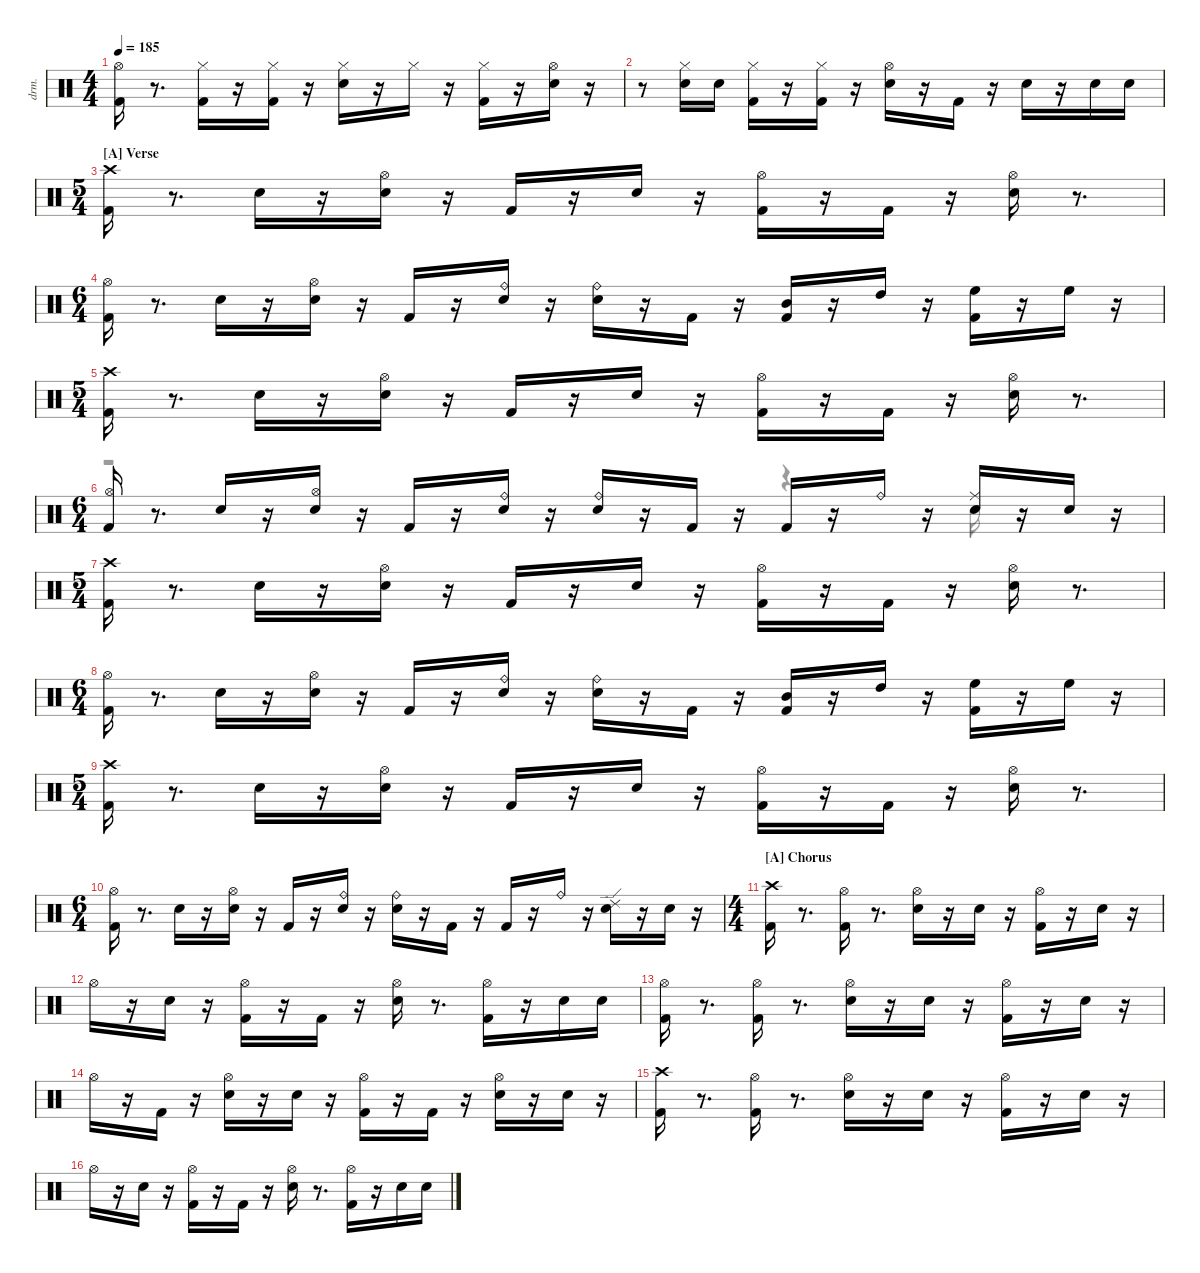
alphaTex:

\defaultSystemsLayout 4
\hideDynamics
\bracketExtendMode nobrackets
\otherSystemsTrackNameOrientation horizontal
\track ("drums" "drm.") {instrument percussion}
\staff {score}
\articulation defaults
\voice
\ts (4 4)
\tempo 185
\clef neutral
\ks aminor
("Kick (hit) 2" "Hi-Hat (open)"{acc #}).16{dy ff beam Down} r.8{d beam Down} ("Kick (hit) 2" "Hi-Hat (closed)"{acc #}).16{dy f beam Down} r.16{beam Down} ("Kick (hit) 2" "Hi-Hat (closed)"{acc #}).16{dy ff beam Down} r.16{beam Down} ("Snare (hit) 2" "Hi-Hat (closed)"{acc #}).16{beam Down} r.16{beam Down} "Hi-Hat (closed)"{acc #}.16{dy ppp beam Down} r.16{beam Down} ("Kick (hit) 2" "Hi-Hat (closed)"{acc #}).16{dy ff beam Down} r.16{beam Down} ("Snare (hit) 2" "Hi-Hat (open)"{acc #}).16{beam Down} r.16{beam Down} |
r.8{beam Down} ("Snare (hit) 2" "Hi-Hat (closed)"{acc #}).16{beam Down} "Snare (hit) 2".16{dy pp beam Down} ("Kick (hit) 2" "Hi-Hat (closed)"{acc #}).16{dy f beam Down} r.16{beam Down} ("Kick (hit) 2" "Hi-Hat (closed)"{acc #}).16{dy fff beam Down} r.16{beam Down} ("Snare (hit) 2" "Hi-Hat (open)"{acc #}).16{dy ff beam Down} r.16{beam Down} "Kick (hit) 2".16{beam Up} r.16{beam Up} "Snare (hit) 2".16{dy fff beam Down} r.16{beam Down} "Snare (hit) 2".16{dy p beam Down} "Snare (hit) 2".16{dy pp beam Down} |
\ts (5 4)
\section ("A" "Verse")
("Kick (hit) 2" "Crash high (hit)"{acc #}).16{dy fff beam Down} r.8{d beam Down} "Snare (hit) 2".16{dy f beam Down} r.16{beam Down} ("Snare (hit) 2" "Hi-Hat (open)"{acc #}).16{dy pp beam Down} r.16{beam Down} "Kick (hit) 2".16{dy f beam Up} r.16{beam Up} "Snare (hit) 2".16{dy ff beam Down} r.16{beam Down} ("Kick (hit) 2" "Hi-Hat (open)"{acc #}).16{dy mp beam Down} r.16{beam Down} "Kick (hit) 2".16{dy ff beam Up} r.16{beam Up} ("Snare (hit) 2" "Hi-Hat (open)"{acc #}).16{beam Down} r.8{d beam Down} |
\ts (6 4)
("Kick (hit) 2" "Hi-Hat (open)"{acc #}).16{beam Down} r.8{d beam Down} "Snare (hit) 2".16{beam Down} r.16{beam Down} ("Snare (hit) 2" "Hi-Hat (open)"{acc #}).16{dy pp beam Down} r.16{beam Down} "Kick (hit) 2".16{dy ff beam Up} r.16{beam Up} ("Snare (hit) 2" "Ride (bell)").16{dy f beam Down} r.16{beam Down} ("Snare (hit) 2" "Ride (bell)").16{dy pp beam Down} r.16{beam Down} "Kick (hit) 2".16{dy f beam Up} r.16{beam Up} ("Kick (hit) 2" "Mid Tom (hit)").16{dy fff beam Up} r.16{beam Up} "High Tom (hit)".16{dy ff beam Down} r.16{beam Down} ("Kick (hit) 2" "High Floor Tom (hit)").16{beam Down} r.16{beam Down} "High Floor Tom (hit)".16{beam Down} r.16{beam Down} |
\ts (5 4)
("Kick (hit) 2" "Crash high (hit)"{acc #}).16{beam Down} r.8{d beam Down} "Snare (hit) 2".16{dy f beam Down} r.16{beam Down} ("Snare (hit) 2" "Hi-Hat (open)"{acc #}).16{dy mp beam Down} r.16{beam Down} "Kick (hit) 2".16{dy f beam Up} r.16{beam Up} "Snare (hit) 2".16{dy ff beam Down} r.16{beam Down} ("Kick (hit) 2" "Hi-Hat (open)"{acc #}).16{dy mf beam Down} r.16{beam Down} "Kick (hit) 2".16{dy ff beam Up} r.16{beam Up} ("Snare (hit) 2" "Hi-Hat (open)"{acc #}).16{beam Down} r.8{d beam Down} |
\ts (6 4)
("Kick (hit) 2" "Hi-Hat (open)"{acc #}).16{beam Up} r.8{d beam Up} "Snare (hit) 2".16{beam Up} r.16{beam Up} ("Snare (hit) 2" "Hi-Hat (open)"{acc #}).16{dy mf beam Up} r.16{beam Up} "Kick (hit) 2".16{dy ff beam Up} r.16{beam Up} ("Snare (hit) 2" "Ride (bell)").16{dy f beam Up} r.16{beam Up} ("Snare (hit) 2" "Ride (bell)").16{dy pp beam Up} r.16{beam Up} "Kick (hit) 2".16{dy f beam Up} r.16{beam Up} "Kick (hit) 2".16{dy fff beam Up} r.16{beam Up} "Ride (bell)".16{dy ff beam Up} r.16{beam Up} ("Snare (hit) 2" "Ride (middle)"{acc #}).16{dy f beam Up} r.16{beam Up} "Snare (hit) 2".16{dy ppp beam Up} r.16{beam Up} |
\ts (5 4)
("Kick (hit) 2" "Crash high (hit)"{acc #}).16{dy ff beam Down} r.8{d beam Down} "Snare (hit) 2".16{dy f beam Down} r.16{beam Down} ("Snare (hit) 2" "Hi-Hat (open)"{acc #}).16{dy ff beam Down} r.16{beam Down} "Kick (hit) 2".16{dy f beam Up} r.16{beam Up} "Snare (hit) 2".16{dy ff beam Down} r.16{beam Down} ("Kick (hit) 2" "Hi-Hat (open)"{acc #}).16{dy mf beam Down} r.16{beam Down} "Kick (hit) 2".16{dy ff beam Up} r.16{beam Up} ("Snare (hit) 2" "Hi-Hat (open)"{acc #}).16{dy fff beam Down} r.8{d beam Down} |
\ts (6 4)
("Kick (hit) 2" "Hi-Hat (open)"{acc #}).16{beam Down} r.8{d beam Down} "Snare (hit) 2".16{dy ff beam Down} r.16{beam Down} ("Snare (hit) 2" "Hi-Hat (open)"{acc #}).16{dy pp beam Down} r.16{beam Down} "Kick (hit) 2".16{dy ff beam Up} r.16{beam Up} ("Snare (hit) 2" "Ride (bell)").16{dy f beam Down} r.16{beam Down} ("Snare (hit) 2" "Ride (bell)").16{dy pp beam Down} r.16{beam Down} "Kick (hit) 2".16{dy f beam Up} r.16{beam Up} ("Kick (hit) 2" "Mid Tom (hit)").16{dy fff beam Up} r.16{beam Up} "High Tom (hit)".16{dy ff beam Down} r.16{beam Down} ("Kick (hit) 2" "High Floor Tom (hit)").16{beam Down} r.16{beam Down} "High Floor Tom (hit)".16{beam Down} r.16{beam Down} |
\ts (5 4)
("Kick (hit) 2" "Crash high (hit)"{acc #}).16{beam Down} r.8{d beam Down} "Snare (hit) 2".16{dy f beam Down} r.16{beam Down} ("Snare (hit) 2" "Hi-Hat (open)"{acc #}).16{dy pp beam Down} r.16{beam Down} "Kick (hit) 2".16{dy f beam Up} r.16{beam Up} "Snare (hit) 2".16{dy ff beam Down} r.16{beam Down} ("Kick (hit) 2" "Hi-Hat (open)"{acc #}).16{dy mf beam Down} r.16{beam Down} "Kick (hit) 2".16{dy ff beam Up} r.16{beam Up} ("Snare (hit) 2" "Hi-Hat (open)"{acc #}).16{beam Down} r.8{d beam Down} |
\ts (6 4)
("Kick (hit) 2" "Hi-Hat (open)"{acc #}).16{beam Down} r.8{d beam Down} "Snare (hit) 2".16{beam Down} r.16{beam Down} ("Snare (hit) 2" "Hi-Hat (open)"{acc #}).16{dy f beam Down} r.16{beam Down} "Kick (hit) 2".16{dy ff beam Up} r.16{beam Up} ("Snare (hit) 2" "Ride (bell)").16{dy f beam Down} r.16{beam Down} ("Snare (hit) 2" "Ride (bell)").16{dy pp beam Down} r.16{beam Down} "Kick (hit) 2".16{dy f beam Up} r.16{beam Up} "Kick (hit) 2".16{dy fff beam Up} r.16{beam Up} "Ride (bell)".16{dy ff beam Down} r.16{beam Down} ("Snare (hit) 2" "Ride (edge) 2").16{dy fff beam Down} r.16{beam Down} "Snare (hit) 2".16{dy mp beam Down} r.16{beam Down} |
\ts (4 4)
\section ("A" "Chorus")
("Kick (hit) 2" "Crash high (hit)"{acc #}).16{dy fff beam Down} r.8{d beam Down} ("Kick (hit) 2" "Hi-Hat (open)"{acc #}).16{dy ff beam Down} r.8{d beam Down} ("Snare (hit) 2" "Hi-Hat (open)"{acc #}).16{beam Down} r.16{beam Down} "Snare (hit) 2".16{dy p beam Down} r.16{beam Down} ("Kick (hit) 2" "Hi-Hat (open)"{acc #}).16{dy ff beam Down} r.16{beam Down} "Snare (hit) 2".16{beam Down} r.16{beam Down} |
"Hi-Hat (open)"{acc #}.16{dy f beam Down} r.16{beam Down} "Snare (hit) 2".16{dy ff beam Down} r.16{beam Down} ("Kick (hit) 2" "Hi-Hat (open)"{acc #}).16{dy f beam Down} r.16{beam Down} "Kick (hit) 2".16{dy ff beam Up} r.16{beam Up} ("Snare (hit) 2" "Hi-Hat (open)"{acc #}).16{dy f beam Down} r.8{d beam Down} ("Kick (hit) 2" "Hi-Hat (open)"{acc #}).16{dy mf beam Down} r.16{beam Down} "Snare (hit) 2".16{beam Down} "Snare (hit) 2".16{dy pp beam Down} |
("Kick (hit) 2" "Hi-Hat (open)"{acc #}).16{dy ff beam Down} r.8{d beam Down} ("Kick (hit) 2" "Hi-Hat (open)"{acc #}).16{beam Down} r.8{d beam Down} ("Snare (hit) 2" "Hi-Hat (open)"{acc #}).16{beam Down} r.16{beam Down} "Snare (hit) 2".16{dy p beam Down} r.16{beam Down} ("Kick (hit) 2" "Hi-Hat (open)"{acc #}).16{dy ff beam Down} r.16{beam Down} "Snare (hit) 2".16{dy f beam Down} r.16{beam Down} |
"Hi-Hat (open)"{acc #}.16{dy ff beam Down} r.16{beam Down} "Kick (hit) 2".16{beam Up} r.16{beam Up} ("Snare (hit) 2" "Hi-Hat (open)"{acc #}).16{beam Down} r.16{beam Down} "Snare (hit) 2".16{dy p beam Down} r.16{beam Down} ("Kick (hit) 2" "Hi-Hat (open)"{acc #}).16{dy mf beam Down} r.16{beam Down} "Kick (hit) 2".16{dy ff beam Up} r.16{beam Up} ("Snare (hit) 2" "Hi-Hat (open)"{acc #}).16{beam Down} r.16{beam Down} "Snare (hit) 2".16{beam Down} r.16{beam Down} |
("Kick (hit) 2" "Crash high (hit)"{acc #}).16{beam Down} r.8{d beam Down} ("Kick (hit) 2" "Hi-Hat (open)"{acc #}).16{beam Down} r.8{d beam Down} ("Snare (hit) 2" "Hi-Hat (open)"{acc #}).16{beam Down} r.16{beam Down} "Snare (hit) 2".16{dy p beam Down} r.16{beam Down} ("Kick (hit) 2" "Hi-Hat (open)"{acc #}).16{dy ff beam Down} r.16{beam Down} "Snare (hit) 2".16{beam Down} r.16{beam Down} |
"Hi-Hat (open)"{acc #}.16{dy f beam Down} r.16{beam Down} "Snare (hit) 2".16{dy ff beam Down} r.16{beam Down} ("Kick (hit) 2" "Hi-Hat (open)"{acc #}).16{dy f beam Down} r.16{beam Down} "Kick (hit) 2".16{dy ff beam Up} r.16{beam Up} ("Snare (hit) 2" "Hi-Hat (open)"{acc #}).16{beam Down} r.8{d beam Down} ("Kick (hit) 2" "Hi-Hat (open)"{acc #}).16{beam Down} r.16{beam Down} "Snare (hit) 2".16{dy mf beam Down} "Snare (hit) 2".16{dy pp beam Down}
\voice
\clef neutral
\ottava regular
\simile none
\ks aminor
|
|
|
|
|
r.1{beam Down} r.4{beam Down} "Snare (hit) 2".16{beam Down} |
|
|
|
|
|
|
|
|
|
